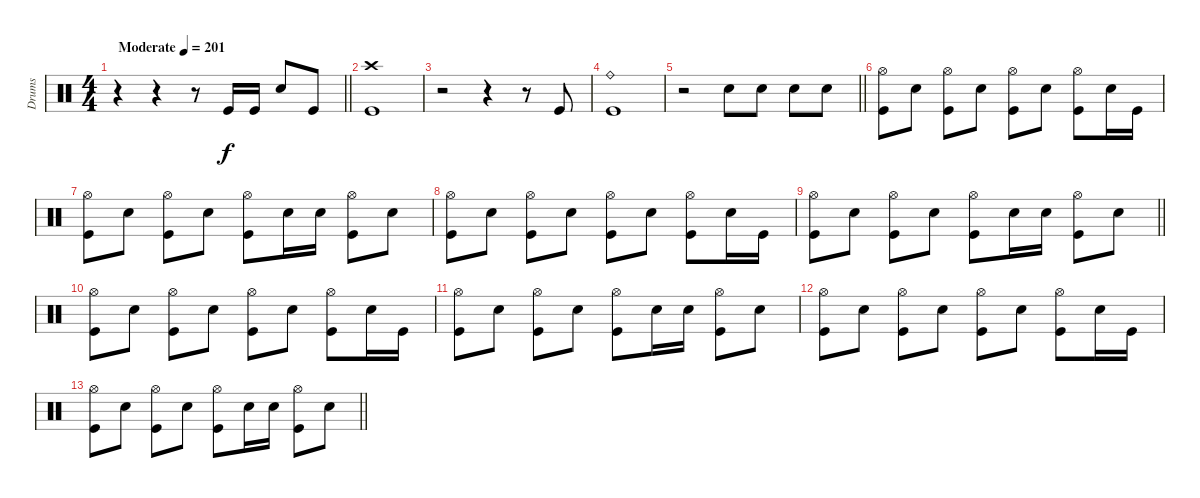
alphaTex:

\track ("Drums" "Drums") {instrument percussion}
\staff
\articulation defaults
\ts (4 4)
\tempo (201 "Moderate")
\clef neutral
\barLineRight lightlight
\ks c
r.4{dy f} r.4 r.8 "Kick (hit)".16 "Kick (hit)".16 "Electric Snare (hit)".8 "Kick (hit)".8 |
("Crash high (hit)" "Kick (hit)").1 |
r.2 r.4 r.8 "Kick (hit)".8 |
("Ride (bell)" "Kick (hit)").1 |
\barLineRight lightlight
r.2 "Electric Snare (hit)".8 "Electric Snare (hit)".8 "Electric Snare (hit)".8 "Electric Snare (hit)".8 |
\section ("" "")
("Hi-Hat (open)" "Kick (hit)").8 "Electric Snare (hit)".8 ("Hi-Hat (open)" "Kick (hit)").8 "Electric Snare (hit)".8 ("Hi-Hat (open)" "Kick (hit)").8 "Electric Snare (hit)".8 ("Hi-Hat (open)" "Kick (hit)").8 "Electric Snare (hit)".16 "Kick (hit)".16 |
("Hi-Hat (open)" "Kick (hit)").8 "Electric Snare (hit)".8 ("Hi-Hat (open)" "Kick (hit)").8 "Electric Snare (hit)".8 ("Hi-Hat (open)" "Kick (hit)").8 "Electric Snare (hit)".16 "Electric Snare (hit)".16 ("Hi-Hat (open)" "Kick (hit)").8 "Electric Snare (hit)".8 |
("Hi-Hat (open)" "Kick (hit)").8 "Electric Snare (hit)".8 ("Hi-Hat (open)" "Kick (hit)").8 "Electric Snare (hit)".8 ("Hi-Hat (open)" "Kick (hit)").8 "Electric Snare (hit)".8 ("Hi-Hat (open)" "Kick (hit)").8 "Electric Snare (hit)".16 "Kick (hit)".16 |
\barLineRight lightlight
("Hi-Hat (open)" "Kick (hit)").8 "Electric Snare (hit)".8 ("Hi-Hat (open)" "Kick (hit)").8 "Electric Snare (hit)".8 ("Hi-Hat (open)" "Kick (hit)").8 "Electric Snare (hit)".16 "Electric Snare (hit)".16 ("Hi-Hat (open)" "Kick (hit)").8 "Electric Snare (hit)".8 |
("Hi-Hat (open)" "Kick (hit)").8 "Electric Snare (hit)".8 ("Hi-Hat (open)" "Kick (hit)").8 "Electric Snare (hit)".8 ("Hi-Hat (open)" "Kick (hit)").8 "Electric Snare (hit)".8 ("Hi-Hat (open)" "Kick (hit)").8 "Electric Snare (hit)".16 "Kick (hit)".16 |
("Hi-Hat (open)" "Kick (hit)").8 "Electric Snare (hit)".8 ("Hi-Hat (open)" "Kick (hit)").8 "Electric Snare (hit)".8 ("Hi-Hat (open)" "Kick (hit)").8 "Electric Snare (hit)".16 "Electric Snare (hit)".16 ("Hi-Hat (open)" "Kick (hit)").8 "Electric Snare (hit)".8 |
("Hi-Hat (open)" "Kick (hit)").8 "Electric Snare (hit)".8 ("Hi-Hat (open)" "Kick (hit)").8 "Electric Snare (hit)".8 ("Hi-Hat (open)" "Kick (hit)").8 "Electric Snare (hit)".8 ("Hi-Hat (open)" "Kick (hit)").8 "Electric Snare (hit)".16 "Kick (hit)".16 |
\barLineRight lightlight
("Hi-Hat (open)" "Kick (hit)").8 "Electric Snare (hit)".8 ("Hi-Hat (open)" "Kick (hit)").8 "Electric Snare (hit)".8 ("Hi-Hat (open)" "Kick (hit)").8 "Electric Snare (hit)".16 "Electric Snare (hit)".16 ("Hi-Hat (open)" "Kick (hit)").8 "Electric Snare (hit)".8
